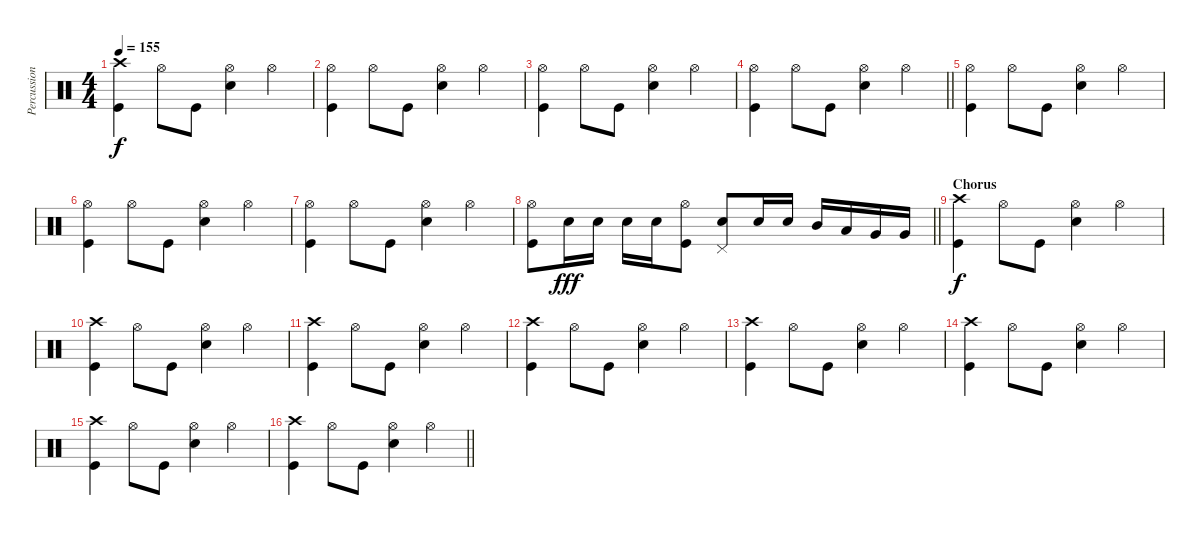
\track ("Percussion" "Percussion") {instrument percussion}
\staff {score}
\articulation defaults
\ts (4 4)
\tempo 155
\clef neutral
\ks c
("Crash high (hit)" "Kick (hit)").4{dy f} "Hi-Hat (open)".8 "Kick (hit)".8 ("Hi-Hat (open)" "Electric Snare (hit)").4 "Hi-Hat (open)".4 |
("Hi-Hat (open)" "Kick (hit)").4 "Hi-Hat (open)".8 "Kick (hit)".8 ("Hi-Hat (open)" "Electric Snare (hit)").4 "Hi-Hat (open)".4 |
("Hi-Hat (open)" "Kick (hit)").4 "Hi-Hat (open)".8 "Kick (hit)".8 ("Hi-Hat (open)" "Electric Snare (hit)").4 "Hi-Hat (open)".4 |
\barLineRight lightlight
("Hi-Hat (open)" "Kick (hit)").4 "Hi-Hat (open)".8 "Kick (hit)".8 ("Hi-Hat (open)" "Electric Snare (hit)").4 "Hi-Hat (open)".4 |
("Hi-Hat (open)" "Kick (hit)").4 "Hi-Hat (open)".8 "Kick (hit)".8 ("Hi-Hat (open)" "Electric Snare (hit)").4 "Hi-Hat (open)".4 |
("Hi-Hat (open)" "Kick (hit)").4 "Hi-Hat (open)".8 "Kick (hit)".8 ("Hi-Hat (open)" "Electric Snare (hit)").4 "Hi-Hat (open)".4 |
("Hi-Hat (open)" "Kick (hit)").4 "Hi-Hat (open)".8 "Kick (hit)".8 ("Hi-Hat (open)" "Electric Snare (hit)").4 "Hi-Hat (open)".4 |
\barLineRight lightlight
("Hi-Hat (open)" "Kick (hit)").8 "Electric Snare (hit)".16{dy fff} "Electric Snare (hit)".16 "Electric Snare (hit)".16 "Electric Snare (hit)".16 ("Hi-Hat (open)" "Kick (hit)").8 ("Pedal Hi-Hat (hit)" "Electric Snare (hit)").8 "Electric Snare (hit)".16 "Electric Snare (hit)".16 "Mid Tom (hit)".16 "Low Tom (hit)".16 "Very Low Tom (hit)".16 "Very Low Tom (hit)".16 |
\section ("" "Chorus")
("Crash high (hit)" "Kick (hit)").4{dy f} "Hi-Hat (open)".8 "Kick (hit)".8 ("Hi-Hat (open)" "Electric Snare (hit)").4 "Hi-Hat (open)".4 |
("Crash high (hit)" "Kick (hit)").4 "Hi-Hat (open)".8 "Kick (hit)".8 ("Hi-Hat (open)" "Electric Snare (hit)").4 "Hi-Hat (open)".4 |
("Crash high (hit)" "Kick (hit)").4 "Hi-Hat (open)".8 "Kick (hit)".8 ("Hi-Hat (open)" "Electric Snare (hit)").4 "Hi-Hat (open)".4 |
("Crash high (hit)" "Kick (hit)").4 "Hi-Hat (open)".8 "Kick (hit)".8 ("Hi-Hat (open)" "Electric Snare (hit)").4 "Hi-Hat (open)".4 |
("Crash high (hit)" "Kick (hit)").4 "Hi-Hat (open)".8 "Kick (hit)".8 ("Hi-Hat (open)" "Electric Snare (hit)").4 "Hi-Hat (open)".4 |
("Crash high (hit)" "Kick (hit)").4 "Hi-Hat (open)".8 "Kick (hit)".8 ("Hi-Hat (open)" "Electric Snare (hit)").4 "Hi-Hat (open)".4 |
("Crash high (hit)" "Kick (hit)").4 "Hi-Hat (open)".8 "Kick (hit)".8 ("Hi-Hat (open)" "Electric Snare (hit)").4 "Hi-Hat (open)".4 |
\barLineRight lightlight
("Crash high (hit)" "Kick (hit)").4 "Hi-Hat (open)".8 "Kick (hit)".8 ("Hi-Hat (open)" "Electric Snare (hit)").4 "Hi-Hat (open)".4
